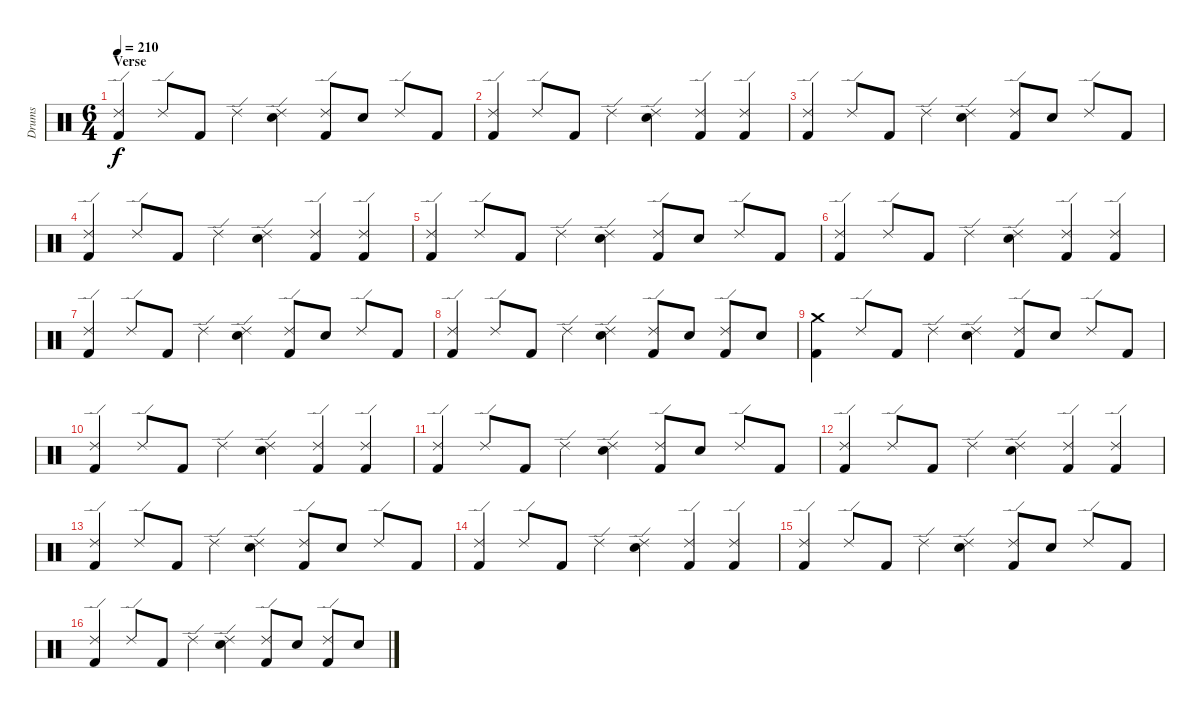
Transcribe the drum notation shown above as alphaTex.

\track ("Drums" "Drums") {instrument percussion}
\staff {score}
\articulation defaults
\ts (6 4)
\section ("" "Verse")
\tempo 210
\clef neutral
\ks c
("Ride (edge) 2" "Kick (hit) 2").4{dy f} "Ride (edge) 2".8 "Kick (hit) 2".8 "Ride (edge) 2".4 ("Ride (edge) 2" "Electric Snare (hit)").4 ("Ride (edge) 2" "Kick (hit) 2").8 "Electric Snare (hit)".8 "Ride (edge) 2".8 "Kick (hit) 2".8 |
("Ride (edge) 2" "Kick (hit) 2").4 "Ride (edge) 2".8 "Kick (hit) 2".8 "Ride (edge) 2".4 ("Ride (edge) 2" "Electric Snare (hit)").4 ("Ride (edge) 2" "Kick (hit) 2").4 ("Ride (edge) 2" "Kick (hit) 2").4 |
("Ride (edge) 2" "Kick (hit) 2").4 "Ride (edge) 2".8 "Kick (hit) 2".8 "Ride (edge) 2".4 ("Ride (edge) 2" "Electric Snare (hit)").4 ("Ride (edge) 2" "Kick (hit) 2").8 "Electric Snare (hit)".8 "Ride (edge) 2".8 "Kick (hit) 2".8 |
("Ride (edge) 2" "Kick (hit) 2").4 "Ride (edge) 2".8 "Kick (hit) 2".8 "Ride (edge) 2".4 ("Ride (edge) 2" "Electric Snare (hit)").4 ("Ride (edge) 2" "Kick (hit) 2").4 ("Ride (edge) 2" "Kick (hit) 2").4 |
("Ride (edge) 2" "Kick (hit) 2").4 "Ride (edge) 2".8 "Kick (hit) 2".8 "Ride (edge) 2".4 ("Ride (edge) 2" "Electric Snare (hit)").4 ("Ride (edge) 2" "Kick (hit) 2").8 "Electric Snare (hit)".8 "Ride (edge) 2".8 "Kick (hit) 2".8 |
("Ride (edge) 2" "Kick (hit) 2").4 "Ride (edge) 2".8 "Kick (hit) 2".8 "Ride (edge) 2".4 ("Ride (edge) 2" "Electric Snare (hit)").4 ("Ride (edge) 2" "Kick (hit) 2").4 ("Ride (edge) 2" "Kick (hit) 2").4 |
("Ride (edge) 2" "Kick (hit) 2").4 "Ride (edge) 2".8 "Kick (hit) 2".8 "Ride (edge) 2".4 ("Ride (edge) 2" "Electric Snare (hit)").4 ("Ride (edge) 2" "Kick (hit) 2").8 "Electric Snare (hit)".8 "Ride (edge) 2".8 "Kick (hit) 2".8 |
("Ride (edge) 2" "Kick (hit) 2").4 "Ride (edge) 2".8 "Kick (hit) 2".8 "Ride (edge) 2".4 ("Ride (edge) 2" "Electric Snare (hit)").4 ("Ride (edge) 2" "Kick (hit) 2").8 "Electric Snare (hit)".8 ("Ride (edge) 2" "Kick (hit) 2").8 "Electric Snare (hit)".8 |
("Crash medium (hit)" "Kick (hit) 2").4 "Ride (edge) 2".8 "Kick (hit) 2".8 "Ride (edge) 2".4 ("Ride (edge) 2" "Electric Snare (hit)").4 ("Ride (edge) 2" "Kick (hit) 2").8 "Electric Snare (hit)".8 "Ride (edge) 2".8 "Kick (hit) 2".8 |
("Ride (edge) 2" "Kick (hit) 2").4 "Ride (edge) 2".8 "Kick (hit) 2".8 "Ride (edge) 2".4 ("Ride (edge) 2" "Electric Snare (hit)").4 ("Ride (edge) 2" "Kick (hit) 2").4 ("Ride (edge) 2" "Kick (hit) 2").4 |
("Ride (edge) 2" "Kick (hit) 2").4 "Ride (edge) 2".8 "Kick (hit) 2".8 "Ride (edge) 2".4 ("Ride (edge) 2" "Electric Snare (hit)").4 ("Ride (edge) 2" "Kick (hit) 2").8 "Electric Snare (hit)".8 "Ride (edge) 2".8 "Kick (hit) 2".8 |
("Ride (edge) 2" "Kick (hit) 2").4 "Ride (edge) 2".8 "Kick (hit) 2".8 "Ride (edge) 2".4 ("Ride (edge) 2" "Electric Snare (hit)").4 ("Ride (edge) 2" "Kick (hit) 2").4 ("Ride (edge) 2" "Kick (hit) 2").4 |
("Ride (edge) 2" "Kick (hit) 2").4 "Ride (edge) 2".8 "Kick (hit) 2".8 "Ride (edge) 2".4 ("Ride (edge) 2" "Electric Snare (hit)").4 ("Ride (edge) 2" "Kick (hit) 2").8 "Electric Snare (hit)".8 "Ride (edge) 2".8 "Kick (hit) 2".8 |
("Ride (edge) 2" "Kick (hit) 2").4 "Ride (edge) 2".8 "Kick (hit) 2".8 "Ride (edge) 2".4 ("Ride (edge) 2" "Electric Snare (hit)").4 ("Ride (edge) 2" "Kick (hit) 2").4 ("Ride (edge) 2" "Kick (hit) 2").4 |
("Ride (edge) 2" "Kick (hit) 2").4 "Ride (edge) 2".8 "Kick (hit) 2".8 "Ride (edge) 2".4 ("Ride (edge) 2" "Electric Snare (hit)").4 ("Ride (edge) 2" "Kick (hit) 2").8 "Electric Snare (hit)".8 "Ride (edge) 2".8 "Kick (hit) 2".8 |
("Ride (edge) 2" "Kick (hit) 2").4 "Ride (edge) 2".8 "Kick (hit) 2".8 "Ride (edge) 2".4 ("Ride (edge) 2" "Electric Snare (hit)").4 ("Ride (edge) 2" "Kick (hit) 2").8 "Electric Snare (hit)".8 ("Ride (edge) 2" "Kick (hit) 2").8 "Electric Snare (hit)".8
